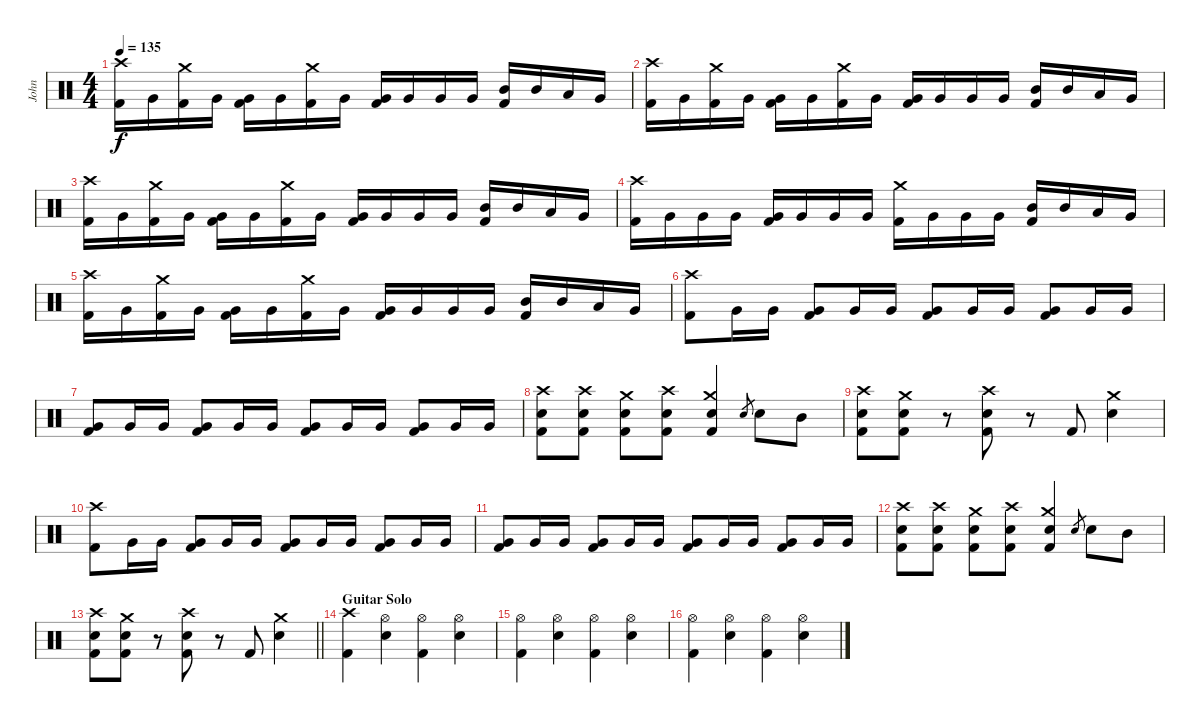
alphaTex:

\track ("John" "John") {instrument percussion}
\staff {score}
\articulation defaults
\ts (4 4)
\tempo 135
\clef neutral
\ks c
("Crash high (hit)" "Kick (hit) 2").16{dy f} "Very Low Tom (hit)".16 ("Crash medium (hit)" "Kick (hit) 2").16 "Very Low Tom (hit)".16 ("Very Low Tom (hit)" "Kick (hit) 2").16 "Very Low Tom (hit)".16 ("Crash medium (hit)" "Kick (hit) 2").16 "Very Low Tom (hit)".16 ("Very Low Tom (hit)" "Kick (hit) 2").16 "Very Low Tom (hit)".16 "Very Low Tom (hit)".16 "Very Low Tom (hit)".16 ("Mid Tom (hit)" "Kick (hit) 2").16 "Mid Tom (hit)".16 "Low Tom (hit)".16 "Very Low Tom (hit)".16 |
("Crash high (hit)" "Kick (hit) 2").16 "Very Low Tom (hit)".16 ("Crash medium (hit)" "Kick (hit) 2").16 "Very Low Tom (hit)".16 ("Very Low Tom (hit)" "Kick (hit) 2").16 "Very Low Tom (hit)".16 ("Crash medium (hit)" "Kick (hit) 2").16 "Very Low Tom (hit)".16 ("Very Low Tom (hit)" "Kick (hit) 2").16 "Very Low Tom (hit)".16 "Very Low Tom (hit)".16 "Very Low Tom (hit)".16 ("Mid Tom (hit)" "Kick (hit) 2").16 "Mid Tom (hit)".16 "Low Tom (hit)".16 "Very Low Tom (hit)".16 |
("Crash high (hit)" "Kick (hit) 2").16 "Very Low Tom (hit)".16 ("Crash medium (hit)" "Kick (hit) 2").16 "Very Low Tom (hit)".16 ("Very Low Tom (hit)" "Kick (hit) 2").16 "Very Low Tom (hit)".16 ("Crash medium (hit)" "Kick (hit) 2").16 "Very Low Tom (hit)".16 ("Very Low Tom (hit)" "Kick (hit) 2").16 "Very Low Tom (hit)".16 "Very Low Tom (hit)".16 "Very Low Tom (hit)".16 ("Mid Tom (hit)" "Kick (hit) 2").16 "Mid Tom (hit)".16 "Low Tom (hit)".16 "Very Low Tom (hit)".16 |
("Crash high (hit)" "Kick (hit) 2").16 "Very Low Tom (hit)".16 "Very Low Tom (hit)".16 "Very Low Tom (hit)".16 ("Very Low Tom (hit)" "Kick (hit) 2").16 "Very Low Tom (hit)".16 "Very Low Tom (hit)".16 "Very Low Tom (hit)".16 ("Crash medium (hit)" "Kick (hit) 2").16 "Very Low Tom (hit)".16 "Very Low Tom (hit)".16 "Very Low Tom (hit)".16 ("Mid Tom (hit)" "Kick (hit) 2").16 "Mid Tom (hit)".16 "Low Tom (hit)".16 "Very Low Tom (hit)".16 |
("Crash high (hit)" "Kick (hit) 2").16 "Very Low Tom (hit)".16 ("Crash medium (hit)" "Kick (hit) 2").16 "Very Low Tom (hit)".16 ("Very Low Tom (hit)" "Kick (hit) 2").16 "Very Low Tom (hit)".16 ("Crash medium (hit)" "Kick (hit) 2").16 "Very Low Tom (hit)".16 ("Very Low Tom (hit)" "Kick (hit) 2").16 "Very Low Tom (hit)".16 "Very Low Tom (hit)".16 "Very Low Tom (hit)".16 ("Mid Tom (hit)" "Kick (hit) 2").16 "Mid Tom (hit)".16 "Low Tom (hit)".16 "Very Low Tom (hit)".16 |
("Crash high (hit)" "Kick (hit) 2").8 "Very Low Tom (hit)".16 "Very Low Tom (hit)".16 ("Very Low Tom (hit)" "Kick (hit) 2").8 "Very Low Tom (hit)".16 "Very Low Tom (hit)".16 ("Very Low Tom (hit)" "Kick (hit) 2").8 "Very Low Tom (hit)".16 "Very Low Tom (hit)".16 ("Very Low Tom (hit)" "Kick (hit) 2").8 "Very Low Tom (hit)".16 "Very Low Tom (hit)".16 |
("Very Low Tom (hit)" "Kick (hit) 2").8 "Very Low Tom (hit)".16 "Very Low Tom (hit)".16 ("Very Low Tom (hit)" "Kick (hit) 2").8 "Very Low Tom (hit)".16 "Very Low Tom (hit)".16 ("Very Low Tom (hit)" "Kick (hit) 2").8 "Very Low Tom (hit)".16 "Very Low Tom (hit)".16 ("Very Low Tom (hit)" "Kick (hit) 2").8 "Very Low Tom (hit)".16 "Very Low Tom (hit)".16 |
("Crash high (hit)" "Electric Snare (hit)" "Kick (hit) 2").8 ("Crash high (hit)" "Electric Snare (hit)" "Kick (hit) 2").8 ("Crash medium (hit)" "Electric Snare (hit)" "Kick (hit) 2").8 ("Crash high (hit)" "Electric Snare (hit)" "Kick (hit) 2").8 ("Crash medium (hit)" "Electric Snare (hit)" "Kick (hit) 2").4 "Electric Snare (hit)".8{gr} "Electric Snare (hit)".8 "Mid Tom (hit)".8 |
("Crash high (hit)" "Electric Snare (hit)" "Kick (hit) 2").8 ("Crash medium (hit)" "Electric Snare (hit)" "Kick (hit) 2").8 r.8 ("Crash high (hit)" "Electric Snare (hit)" "Kick (hit) 2").8 r.8 "Kick (hit) 2".8 ("Crash medium (hit)" "Electric Snare (hit)").4 |
("Crash high (hit)" "Kick (hit) 2").8 "Very Low Tom (hit)".16 "Very Low Tom (hit)".16 ("Very Low Tom (hit)" "Kick (hit) 2").8 "Very Low Tom (hit)".16 "Very Low Tom (hit)".16 ("Very Low Tom (hit)" "Kick (hit) 2").8 "Very Low Tom (hit)".16 "Very Low Tom (hit)".16 ("Very Low Tom (hit)" "Kick (hit) 2").8 "Very Low Tom (hit)".16 "Very Low Tom (hit)".16 |
("Very Low Tom (hit)" "Kick (hit) 2").8 "Very Low Tom (hit)".16 "Very Low Tom (hit)".16 ("Very Low Tom (hit)" "Kick (hit) 2").8 "Very Low Tom (hit)".16 "Very Low Tom (hit)".16 ("Very Low Tom (hit)" "Kick (hit) 2").8 "Very Low Tom (hit)".16 "Very Low Tom (hit)".16 ("Very Low Tom (hit)" "Kick (hit) 2").8 "Very Low Tom (hit)".16 "Very Low Tom (hit)".16 |
("Crash high (hit)" "Electric Snare (hit)" "Kick (hit) 2").8 ("Crash high (hit)" "Electric Snare (hit)" "Kick (hit) 2").8 ("Crash medium (hit)" "Electric Snare (hit)" "Kick (hit) 2").8 ("Crash high (hit)" "Electric Snare (hit)" "Kick (hit) 2").8 ("Crash medium (hit)" "Electric Snare (hit)" "Kick (hit) 2").4 "Electric Snare (hit)".8{gr} "Electric Snare (hit)".8 "Mid Tom (hit)".8 |
\barLineRight lightlight
("Crash high (hit)" "Electric Snare (hit)" "Kick (hit) 2").8 ("Crash medium (hit)" "Electric Snare (hit)" "Kick (hit) 2").8 r.8 ("Crash high (hit)" "Electric Snare (hit)" "Kick (hit) 2").8 r.8 "Kick (hit) 2".8 ("Crash medium (hit)" "Electric Snare (hit)").4 |
\section ("" "Guitar Solo")
("Crash high (hit)" "Kick (hit) 2").4 ("Hi-Hat (open)" "Electric Snare (hit)").4 ("Hi-Hat (open)" "Kick (hit) 2").4 ("Hi-Hat (open)" "Electric Snare (hit)").4 |
("Hi-Hat (open)" "Kick (hit) 2").4 ("Hi-Hat (open)" "Electric Snare (hit)").4 ("Hi-Hat (open)" "Kick (hit) 2").4 ("Hi-Hat (open)" "Electric Snare (hit)").4 |
("Hi-Hat (open)" "Kick (hit) 2").4 ("Hi-Hat (open)" "Electric Snare (hit)").4 ("Hi-Hat (open)" "Kick (hit) 2").4 ("Hi-Hat (open)" "Electric Snare (hit)").4
